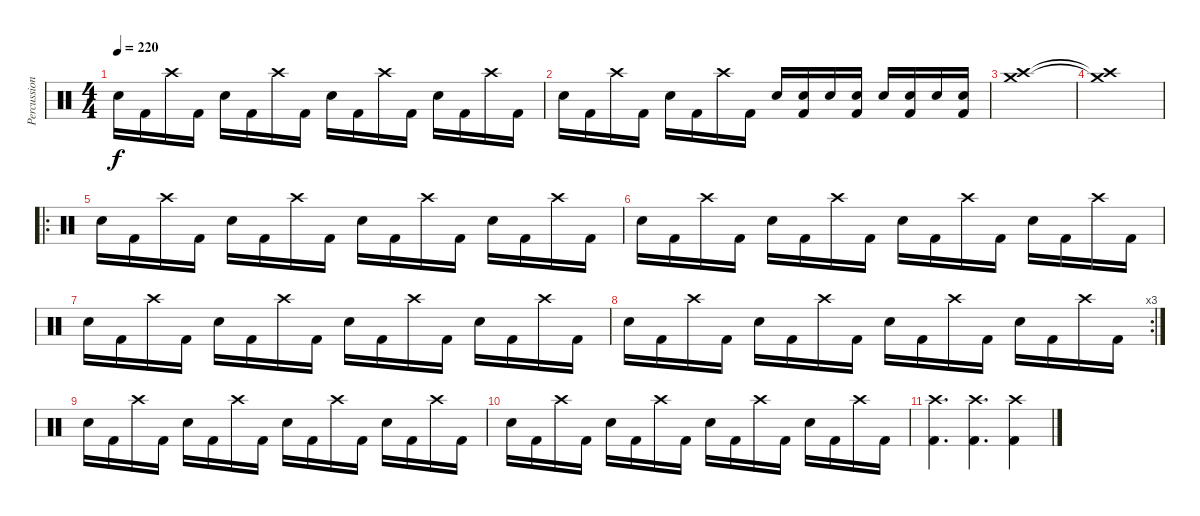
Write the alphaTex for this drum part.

\track ("Percussion" "Percussion") {instrument percussion}
\staff {score}
\articulation defaults
\ts (4 4)
\tempo 220
\clef neutral
\ks c "Electric Snare (hit)".16{dy f} "Kick (hit) 2".16 "Crash high (hit)".16 "Kick (hit) 2".16 "Electric Snare (hit)".16 "Kick (hit) 2".16 "Crash high (hit)".16 "Kick (hit) 2".16 "Electric Snare (hit)".16 "Kick (hit) 2".16 "Crash high (hit)".16 "Kick (hit) 2".16 "Electric Snare (hit)".16 "Kick (hit) 2".16 "Crash high (hit)".16 "Kick (hit) 2".16
|
"Electric Snare (hit)".16 "Kick (hit) 2".16 "Crash high (hit)".16 "Kick (hit) 2".16 "Electric Snare (hit)".16 "Kick (hit) 2".16 "Crash high (hit)".16 "Kick (hit) 2".16 "Electric Snare (hit)".16 ("Electric Snare (hit)" "Kick (hit) 2").16 "Electric Snare (hit)".16 ("Electric Snare (hit)" "Kick (hit) 2").16 "Electric Snare (hit)".16 ("Electric Snare (hit)" "Kick (hit) 2").16 "Electric Snare (hit)".16 ("Electric Snare (hit)" "Kick (hit) 2").16 |
("Crash high (hit)" "Crash medium (hit)").1 |
("Crash high (hit)"{t} "Crash medium (hit)"{t}).1 |
\ro "Electric Snare (hit)".16 "Kick (hit) 2".16 "Crash high (hit)".16 "Kick (hit) 2".16 "Electric Snare (hit)".16 "Kick (hit) 2".16 "Crash high (hit)".16 "Kick (hit) 2".16 "Electric Snare (hit)".16 "Kick (hit) 2".16 "Crash high (hit)".16 "Kick (hit) 2".16 "Electric Snare (hit)".16 "Kick (hit) 2".16 "Crash high (hit)".16 "Kick (hit) 2".16
|
"Electric Snare (hit)".16 "Kick (hit) 2".16 "Crash high (hit)".16 "Kick (hit) 2".16 "Electric Snare (hit)".16 "Kick (hit) 2".16 "Crash high (hit)".16 "Kick (hit) 2".16 "Electric Snare (hit)".16 "Kick (hit) 2".16 "Crash high (hit)".16 "Kick (hit) 2".16 "Electric Snare (hit)".16 "Kick (hit) 2".16 "Crash high (hit)".16 "Kick (hit) 2".16 |
"Electric Snare (hit)".16 "Kick (hit) 2".16 "Crash high (hit)".16 "Kick (hit) 2".16 "Electric Snare (hit)".16 "Kick (hit) 2".16 "Crash high (hit)".16 "Kick (hit) 2".16 "Electric Snare (hit)".16 "Kick (hit) 2".16 "Crash high (hit)".16 "Kick (hit) 2".16 "Electric Snare (hit)".16 "Kick (hit) 2".16 "Crash high (hit)".16 "Kick (hit) 2".16 |
\rc 3 "Electric Snare (hit)".16 "Kick (hit) 2".16 "Crash high (hit)".16 "Kick (hit) 2".16 "Electric Snare (hit)".16 "Kick (hit) 2".16 "Crash high (hit)".16 "Kick (hit) 2".16 "Electric Snare (hit)".16 "Kick (hit) 2".16 "Crash high (hit)".16 "Kick (hit) 2".16 "Electric Snare (hit)".16 "Kick (hit) 2".16 "Crash high (hit)".16 "Kick (hit) 2".16
|
"Electric Snare (hit)".16 "Kick (hit) 2".16 "Crash high (hit)".16 "Kick (hit) 2".16 "Electric Snare (hit)".16 "Kick (hit) 2".16 "Crash high (hit)".16 "Kick (hit) 2".16 "Electric Snare (hit)".16 "Kick (hit) 2".16 "Crash high (hit)".16 "Kick (hit) 2".16 "Electric Snare (hit)".16 "Kick (hit) 2".16 "Crash high (hit)".16 "Kick (hit) 2".16 |
"Electric Snare (hit)".16 "Kick (hit) 2".16 "Crash high (hit)".16 "Kick (hit) 2".16 "Electric Snare (hit)".16 "Kick (hit) 2".16 "Crash high (hit)".16 "Kick (hit) 2".16 "Electric Snare (hit)".16 "Kick (hit) 2".16 "Crash high (hit)".16 "Kick (hit) 2".16 "Electric Snare (hit)".16 "Kick (hit) 2".16 "Crash high (hit)".16 "Kick (hit) 2".16 |
("Crash high (hit)" "Kick (hit) 2").4{d} ("Crash high (hit)" "Kick (hit) 2").4{d} ("Crash high (hit)" "Kick (hit) 2").4
